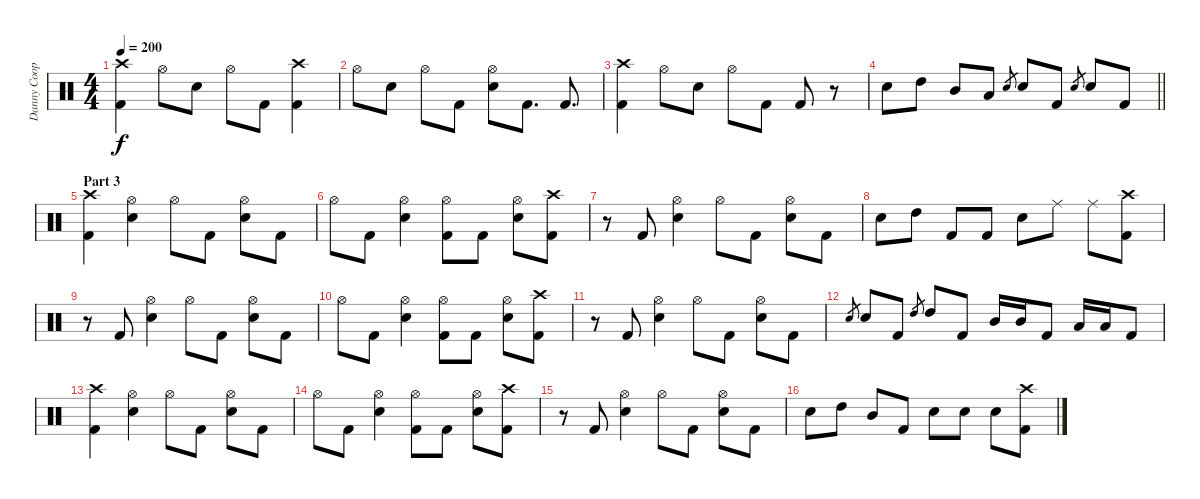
\track ("Danny Cooper" "Danny Coop") {instrument percussion}
\staff {score}
\articulation defaults
\ts (4 4)
\tempo 200
\clef neutral
\ks c
("Crash high (hit)" "Kick (hit) 2").4{dy f} "Hi-Hat (open)".8 "Snare (hit) 2".8 "Hi-Hat (open)".8 "Kick (hit) 2".8 ("Crash high (hit)" "Kick (hit) 2").4 |
"Hi-Hat (open)".8 "Snare (hit) 2".8 "Hi-Hat (open)".8 "Kick (hit) 2".8 ("Hi-Hat (open)" "Snare (hit) 2").8 "Kick (hit) 2".8{d} "Kick (hit) 2".8{d} |
("Crash high (hit)" "Kick (hit) 2").4 "Hi-Hat (open)".8 "Snare (hit) 2".8 "Hi-Hat (open)".8 "Kick (hit) 2".8 "Kick (hit) 2".8 r.8 |
\barLineRight lightlight "Snare (hit) 2".8 "High Tom (hit)".8 "Mid Tom (hit)".8 "Low Tom (hit)".8 "Snare (hit) 2".8{gr} "Snare (hit) 2".8 "Kick (hit) 2".8 "Snare (hit) 2".8{gr} "Snare (hit) 2".8 "Kick (hit) 2".8
|
\section ("" "Part 3")
("Crash high (hit)" "Kick (hit) 2").4 ("Hi-Hat (open)" "Snare (hit) 2").4 "Hi-Hat (open)".8 "Kick (hit) 2".8 ("Hi-Hat (open)" "Snare (hit) 2").8 "Kick (hit) 2".8 |
"Hi-Hat (open)".8 "Kick (hit) 2".8 ("Hi-Hat (open)" "Snare (hit) 2").4 ("Hi-Hat (open)" "Kick (hit) 2").8 "Kick (hit) 2".8 ("Hi-Hat (open)" "Snare (hit) 2").8 ("Crash high (hit)" "Kick (hit) 2").8 |
r.8 "Kick (hit) 2".8 ("Hi-Hat (open)" "Snare (hit) 2").4 "Hi-Hat (open)".8 "Kick (hit) 2".8 ("Hi-Hat (open)" "Snare (hit) 2").8 "Kick (hit) 2".8 |
"Snare (hit) 2".8 "High Tom (hit)".8 "Kick (hit) 2".8 "Kick (hit) 2".8 "Snare (hit) 2".8 "Ride (middle)".8 "Ride (middle)".8 ("Crash high (hit)" "Kick (hit) 2").8 |
r.8 "Kick (hit) 2".8 ("Hi-Hat (open)" "Snare (hit) 2").4 "Hi-Hat (open)".8 "Kick (hit) 2".8 ("Hi-Hat (open)" "Snare (hit) 2").8 "Kick (hit) 2".8 |
"Hi-Hat (open)".8 "Kick (hit) 2".8 ("Hi-Hat (open)" "Snare (hit) 2").4 ("Hi-Hat (open)" "Kick (hit) 2").8 "Kick (hit) 2".8 ("Hi-Hat (open)" "Snare (hit) 2").8 ("Crash high (hit)" "Kick (hit) 2").8 |
r.8 "Kick (hit) 2".8 ("Hi-Hat (open)" "Snare (hit) 2").4 "Hi-Hat (open)".8 "Kick (hit) 2".8 ("Hi-Hat (open)" "Snare (hit) 2").8 "Kick (hit) 2".8 |
"Snare (hit) 2".8{gr} "Snare (hit) 2".8 "Kick (hit) 2".8 "High Tom (hit)".8{gr} "High Tom (hit)".8 "Kick (hit) 2".8 "Mid Tom (hit)".16 "Mid Tom (hit)".16 "Kick (hit) 2".8 "Low Tom (hit)".16 "Low Tom (hit)".16 "Kick (hit) 2".8 |
("Crash high (hit)" "Kick (hit) 2").4 ("Hi-Hat (open)" "Snare (hit) 2").4 "Hi-Hat (open)".8 "Kick (hit) 2".8 ("Hi-Hat (open)" "Snare (hit) 2").8 "Kick (hit) 2".8 |
"Hi-Hat (open)".8 "Kick (hit) 2".8 ("Hi-Hat (open)" "Snare (hit) 2").4 ("Hi-Hat (open)" "Kick (hit) 2").8 "Kick (hit) 2".8 ("Hi-Hat (open)" "Snare (hit) 2").8 ("Crash high (hit)" "Kick (hit) 2").8 |
r.8 "Kick (hit) 2".8 ("Hi-Hat (open)" "Snare (hit) 2").4 "Hi-Hat (open)".8 "Kick (hit) 2".8 ("Hi-Hat (open)" "Snare (hit) 2").8 "Kick (hit) 2".8 |
"Snare (hit) 2".8 "High Tom (hit)".8 "Mid Tom (hit)".8 "Kick (hit) 2".8 "Snare (hit) 2".8 "Snare (hit) 2".8 "Snare (hit) 2".8 ("Crash high (hit)" "Kick (hit) 2").8
